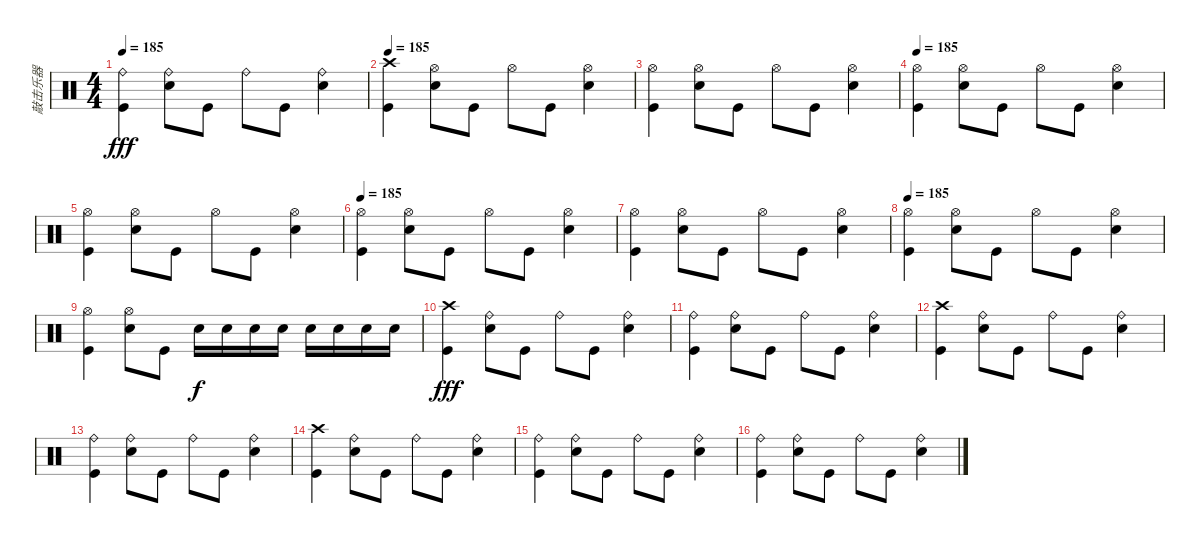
\track ("敲击乐器" "敲击乐器") {instrument percussion}
\staff {score}
\articulation defaults
\ts (4 4)
\tempo 185
\clef neutral
\ks c
("Ride (bell)" "Kick (hit)").4{dy fff} ("Ride (bell)" "Snare (hit) 2").8 "Kick (hit)".8 "Ride (bell)".8 "Kick (hit)".8 ("Ride (bell)" "Snare (hit) 2").4 |
\tempo 185
("Crash high (hit)" "Kick (hit)").4 ("Hi-Hat (open)" "Snare (hit) 2").8 "Kick (hit)".8 "Hi-Hat (open)".8 "Kick (hit)".8 ("Hi-Hat (open)" "Snare (hit) 2").4 |
("Hi-Hat (open)" "Kick (hit)").4 ("Hi-Hat (open)" "Snare (hit) 2").8 "Kick (hit)".8 "Hi-Hat (open)".8 "Kick (hit)".8 ("Hi-Hat (open)" "Snare (hit) 2").4 |
\tempo 185
("Hi-Hat (open)" "Kick (hit)").4 ("Hi-Hat (open)" "Snare (hit) 2").8 "Kick (hit)".8 "Hi-Hat (open)".8 "Kick (hit)".8 ("Hi-Hat (open)" "Snare (hit) 2").4 |
("Hi-Hat (open)" "Kick (hit)").4 ("Hi-Hat (open)" "Snare (hit) 2").8 "Kick (hit)".8 "Hi-Hat (open)".8 "Kick (hit)".8 ("Hi-Hat (open)" "Snare (hit) 2").4 |
\tempo 185
("Hi-Hat (open)" "Kick (hit)").4 ("Hi-Hat (open)" "Snare (hit) 2").8 "Kick (hit)".8 "Hi-Hat (open)".8 "Kick (hit)".8 ("Hi-Hat (open)" "Snare (hit) 2").4 |
("Hi-Hat (open)" "Kick (hit)").4 ("Hi-Hat (open)" "Snare (hit) 2").8 "Kick (hit)".8 "Hi-Hat (open)".8 "Kick (hit)".8 ("Hi-Hat (open)" "Snare (hit) 2").4 |
\tempo 185
("Hi-Hat (open)" "Kick (hit)").4 ("Hi-Hat (open)" "Snare (hit) 2").8 "Kick (hit)".8 "Hi-Hat (open)".8 "Kick (hit)".8 ("Hi-Hat (open)" "Snare (hit) 2").4 |
("Hi-Hat (open)" "Kick (hit)").4 ("Hi-Hat (open)" "Snare (hit) 2").8 "Kick (hit)".8 "Snare (hit) 2".16{dy f} "Snare (hit) 2".16 "Snare (hit) 2".16 "Snare (hit) 2".16 "Snare (hit) 2".16 "Snare (hit) 2".16 "Snare (hit) 2".16 "Snare (hit) 2".16 |
("Crash high (hit)" "Kick (hit)").4{dy fff} ("Ride (bell)" "Snare (hit) 2").8 "Kick (hit)".8 "Ride (bell)".8 "Kick (hit)".8 ("Ride (bell)" "Snare (hit) 2").4 |
("Ride (bell)" "Kick (hit)").4 ("Ride (bell)" "Snare (hit) 2").8 "Kick (hit)".8 "Ride (bell)".8 "Kick (hit)".8 ("Ride (bell)" "Snare (hit) 2").4 |
("Crash high (hit)" "Kick (hit)").4 ("Ride (bell)" "Snare (hit) 2").8 "Kick (hit)".8 "Ride (bell)".8 "Kick (hit)".8 ("Ride (bell)" "Snare (hit) 2").4 |
("Ride (bell)" "Kick (hit)").4 ("Ride (bell)" "Snare (hit) 2").8 "Kick (hit)".8 "Ride (bell)".8 "Kick (hit)".8 ("Ride (bell)" "Snare (hit) 2").4 |
("Crash high (hit)" "Kick (hit)").4 ("Ride (bell)" "Snare (hit) 2").8 "Kick (hit)".8 "Ride (bell)".8 "Kick (hit)".8 ("Ride (bell)" "Snare (hit) 2").4 |
("Ride (bell)" "Kick (hit)").4 ("Ride (bell)" "Snare (hit) 2").8 "Kick (hit)".8 "Ride (bell)".8 "Kick (hit)".8 ("Ride (bell)" "Snare (hit) 2").4 |
("Ride (bell)" "Kick (hit)").4 ("Ride (bell)" "Snare (hit) 2").8 "Kick (hit)".8 "Ride (bell)".8 "Kick (hit)".8 ("Ride (bell)" "Snare (hit) 2").4
